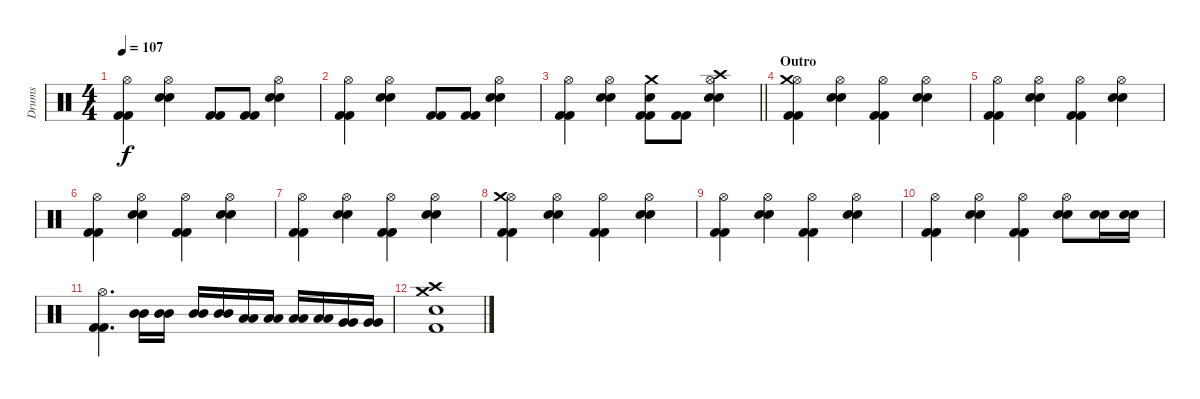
\track ("Drums" "Drums") {instrument percussion}
\staff {score}
\articulation defaults
\ts (4 4)
\tempo 107
\clef neutral
\ks c
("Kick (hit) 2" "Kick (hit) 2" "Hi-Hat (open)").4{dy f} ("Snare (hit) 2" "Snare (hit) 2" "Hi-Hat (open)").4 ("Kick (hit) 2" "Kick (hit) 2").8 ("Kick (hit) 2" "Kick (hit) 2").8 ("Snare (hit) 2" "Snare (hit) 2" "Hi-Hat (open)").4 |
("Kick (hit) 2" "Kick (hit) 2" "Hi-Hat (open)").4 ("Snare (hit) 2" "Snare (hit) 2" "Hi-Hat (open)").4 ("Kick (hit) 2" "Kick (hit) 2").8 ("Kick (hit) 2" "Kick (hit) 2").8 ("Snare (hit) 2" "Snare (hit) 2" "Hi-Hat (open)").4 |
\barLineRight lightlight
("Kick (hit) 2" "Kick (hit) 2" "Hi-Hat (open)").4 ("Snare (hit) 2" "Snare (hit) 2" "Hi-Hat (open)").4 ("Kick (hit) 2" "Kick (hit) 2" "Crash medium (hit)" "Snare (hit) 2").8 ("Kick (hit) 2" "Kick (hit) 2").8 ("Snare (hit) 2" "Snare (hit) 2" "Hi-Hat (open)" "Crash high (hit)").4 |
\section ("" "Outro")
("Kick (hit) 2" "Kick (hit) 2" "Hi-Hat (open)" "Crash medium (hit)").4 ("Snare (hit) 2" "Snare (hit) 2" "Hi-Hat (open)").4 ("Kick (hit) 2" "Kick (hit) 2" "Hi-Hat (open)").4 ("Snare (hit) 2" "Snare (hit) 2" "Hi-Hat (open)").4 |
("Kick (hit) 2" "Kick (hit) 2" "Hi-Hat (open)").4 ("Snare (hit) 2" "Snare (hit) 2" "Hi-Hat (open)").4 ("Kick (hit) 2" "Kick (hit) 2" "Hi-Hat (open)").4 ("Snare (hit) 2" "Snare (hit) 2" "Hi-Hat (open)").4 |
("Kick (hit) 2" "Kick (hit) 2" "Hi-Hat (open)").4 ("Snare (hit) 2" "Snare (hit) 2" "Hi-Hat (open)").4 ("Kick (hit) 2" "Kick (hit) 2" "Hi-Hat (open)").4 ("Snare (hit) 2" "Snare (hit) 2" "Hi-Hat (open)").4 |
("Kick (hit) 2" "Kick (hit) 2" "Hi-Hat (open)").4 ("Snare (hit) 2" "Snare (hit) 2" "Hi-Hat (open)").4 ("Kick (hit) 2" "Kick (hit) 2" "Hi-Hat (open)").4 ("Snare (hit) 2" "Snare (hit) 2" "Hi-Hat (open)").4 |
("Kick (hit) 2" "Kick (hit) 2" "Hi-Hat (open)" "Crash medium (hit)").4 ("Snare (hit) 2" "Snare (hit) 2" "Hi-Hat (open)").4 ("Kick (hit) 2" "Kick (hit) 2" "Hi-Hat (open)").4 ("Snare (hit) 2" "Snare (hit) 2" "Hi-Hat (open)").4 |
("Kick (hit) 2" "Kick (hit) 2" "Hi-Hat (open)").4 ("Snare (hit) 2" "Snare (hit) 2" "Hi-Hat (open)").4 ("Kick (hit) 2" "Kick (hit) 2" "Hi-Hat (open)").4 ("Snare (hit) 2" "Snare (hit) 2" "Hi-Hat (open)").4 |
("Kick (hit) 2" "Kick (hit) 2" "Hi-Hat (open)").4 ("Snare (hit) 2" "Snare (hit) 2" "Hi-Hat (open)").4 ("Kick (hit) 2" "Kick (hit) 2" "Hi-Hat (open)").4 ("Snare (hit) 2" "Snare (hit) 2" "Hi-Hat (open)").8 ("Snare (hit) 2" "Snare (hit) 2").16 ("Snare (hit) 2" "Snare (hit) 2").16 |
("Kick (hit) 2" "Kick (hit) 2" "Hi-Hat (open)").4{d} ("Mid Tom (hit)" "Mid Tom (hit)").16 ("Mid Tom (hit)" "Mid Tom (hit)").16 ("Mid Tom (hit)" "Mid Tom (hit)").16 ("Mid Tom (hit)" "Mid Tom (hit)").16 ("Low Tom (hit)" "Low Tom (hit)").16 ("Low Tom (hit)" "Low Tom (hit)").16 ("Low Tom (hit)" "Low Tom (hit)").16 ("Low Tom (hit)" "Low Tom (hit)").16 ("Very Low Tom (hit)" "Very Low Tom (hit)").16 ("Very Low Tom (hit)" "Very Low Tom (hit)").16 |
("Snare (hit) 2" "Kick (hit) 2" "Crash high (hit)" "Crash medium (hit)").1
